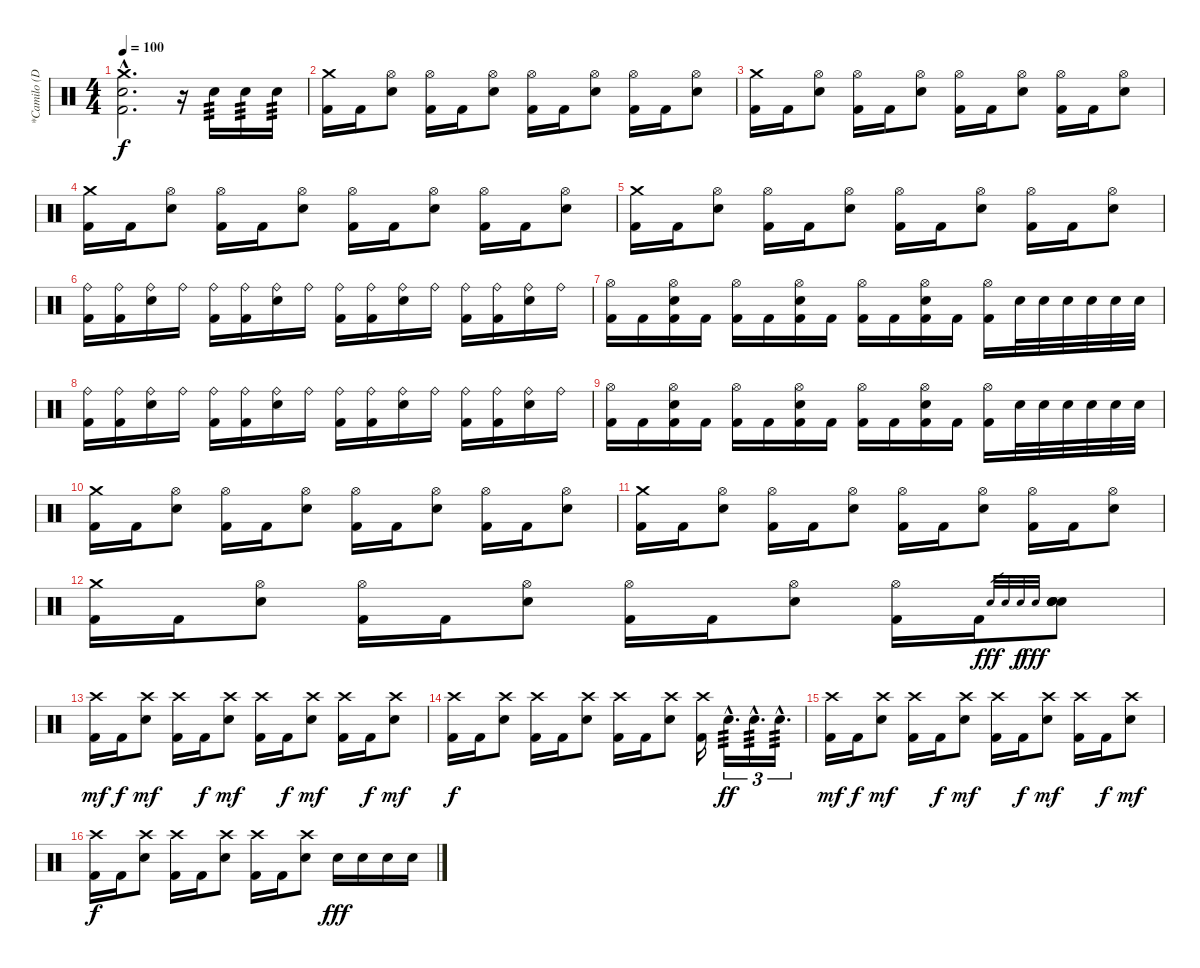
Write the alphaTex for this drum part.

\track ("*Camilo (Drums)" "*Camilo (D") {instrument percussion}
\staff {score}
\articulation defaults
\ts (4 4)
\tempo 100
\clef neutral
\ks c
("Crash medium (hit)"{hac} "Electric Snare (hit)"{hac} "Kick (hit) 2"{hac}).2{d dy f} r.16 "Electric Snare (hit)".16{tp 3} "Electric Snare (hit)".16{tp 3} "Electric Snare (hit)".16{tp 3} |
("Crash medium (hit)" "Kick (hit) 2").16 "Kick (hit) 2".16 ("Hi-Hat (open)" "Electric Snare (hit)").8 ("Hi-Hat (open)" "Kick (hit) 2").16 "Kick (hit) 2".16 ("Hi-Hat (open)" "Electric Snare (hit)").8 ("Hi-Hat (open)" "Kick (hit) 2").16 "Kick (hit) 2".16 ("Hi-Hat (open)" "Electric Snare (hit)").8 ("Hi-Hat (open)" "Kick (hit) 2").16 "Kick (hit) 2".16 ("Hi-Hat (open)" "Electric Snare (hit)").8 |
("Crash medium (hit)" "Kick (hit) 2").16 "Kick (hit) 2".16 ("Hi-Hat (open)" "Electric Snare (hit)").8 ("Hi-Hat (open)" "Kick (hit) 2").16 "Kick (hit) 2".16 ("Hi-Hat (open)" "Electric Snare (hit)").8 ("Hi-Hat (open)" "Kick (hit) 2").16 "Kick (hit) 2".16 ("Hi-Hat (open)" "Electric Snare (hit)").8 ("Hi-Hat (open)" "Kick (hit) 2").16 "Kick (hit) 2".16 ("Hi-Hat (open)" "Electric Snare (hit)").8 |
("Crash medium (hit)" "Kick (hit) 2").16 "Kick (hit) 2".16 ("Hi-Hat (open)" "Electric Snare (hit)").8 ("Hi-Hat (open)" "Kick (hit) 2").16 "Kick (hit) 2".16 ("Hi-Hat (open)" "Electric Snare (hit)").8 ("Hi-Hat (open)" "Kick (hit) 2").16 "Kick (hit) 2".16 ("Hi-Hat (open)" "Electric Snare (hit)").8 ("Hi-Hat (open)" "Kick (hit) 2").16 "Kick (hit) 2".16 ("Hi-Hat (open)" "Electric Snare (hit)").8 |
("Crash medium (hit)" "Kick (hit) 2").16 "Kick (hit) 2".16 ("Hi-Hat (open)" "Electric Snare (hit)").8 ("Hi-Hat (open)" "Kick (hit) 2").16 "Kick (hit) 2".16 ("Hi-Hat (open)" "Electric Snare (hit)").8 ("Hi-Hat (open)" "Kick (hit) 2").16 "Kick (hit) 2".16 ("Hi-Hat (open)" "Electric Snare (hit)").8 ("Hi-Hat (open)" "Kick (hit) 2").16 "Kick (hit) 2".16 ("Hi-Hat (open)" "Electric Snare (hit)").8 |
("Ride (bell)" "Kick (hit) 2").16 ("Ride (bell)" "Kick (hit) 2").16 ("Ride (bell)" "Electric Snare (hit)").16 "Ride (bell)".16 ("Ride (bell)" "Kick (hit) 2").16 ("Ride (bell)" "Kick (hit) 2").16 ("Ride (bell)" "Electric Snare (hit)").16 "Ride (bell)".16 ("Ride (bell)" "Kick (hit) 2").16 ("Ride (bell)" "Kick (hit) 2").16 ("Ride (bell)" "Electric Snare (hit)").16 "Ride (bell)".16 ("Ride (bell)" "Kick (hit) 2").16 ("Ride (bell)" "Kick (hit) 2").16 ("Ride (bell)" "Electric Snare (hit)").16 "Ride (bell)".16 |
("Hi-Hat (open)" "Kick (hit) 2").16 "Kick (hit) 2".16 ("Hi-Hat (open)" "Electric Snare (hit)" "Kick (hit) 2").16 "Kick (hit) 2".16 ("Hi-Hat (open)" "Kick (hit) 2").16 "Kick (hit) 2".16 ("Hi-Hat (open)" "Electric Snare (hit)" "Kick (hit) 2").16 "Kick (hit) 2".16 ("Hi-Hat (open)" "Kick (hit) 2").16 "Kick (hit) 2".16 ("Hi-Hat (open)" "Electric Snare (hit)" "Kick (hit) 2").16 "Kick (hit) 2".16 ("Hi-Hat (open)" "Kick (hit) 2").16 "Electric Snare (hit)".32 "Electric Snare (hit)".32 "Electric Snare (hit)".32 "Electric Snare (hit)".32 "Electric Snare (hit)".32 "Electric Snare (hit)".32 |
("Ride (bell)" "Kick (hit) 2").16 ("Ride (bell)" "Kick (hit) 2").16 ("Ride (bell)" "Electric Snare (hit)").16 "Ride (bell)".16 ("Ride (bell)" "Kick (hit) 2").16 ("Ride (bell)" "Kick (hit) 2").16 ("Ride (bell)" "Electric Snare (hit)").16 "Ride (bell)".16 ("Ride (bell)" "Kick (hit) 2").16 ("Ride (bell)" "Kick (hit) 2").16 ("Ride (bell)" "Electric Snare (hit)").16 "Ride (bell)".16 ("Ride (bell)" "Kick (hit) 2").16 ("Ride (bell)" "Kick (hit) 2").16 ("Ride (bell)" "Electric Snare (hit)").16 "Ride (bell)".16 |
("Hi-Hat (open)" "Kick (hit) 2").16 "Kick (hit) 2".16 ("Hi-Hat (open)" "Electric Snare (hit)" "Kick (hit) 2").16 "Kick (hit) 2".16 ("Hi-Hat (open)" "Kick (hit) 2").16 "Kick (hit) 2".16 ("Hi-Hat (open)" "Electric Snare (hit)" "Kick (hit) 2").16 "Kick (hit) 2".16 ("Hi-Hat (open)" "Kick (hit) 2").16 "Kick (hit) 2".16 ("Hi-Hat (open)" "Electric Snare (hit)" "Kick (hit) 2").16 "Kick (hit) 2".16 ("Hi-Hat (open)" "Kick (hit) 2").16 "Electric Snare (hit)".32 "Electric Snare (hit)".32 "Electric Snare (hit)".32 "Electric Snare (hit)".32 "Electric Snare (hit)".32 "Electric Snare (hit)".32 |
("Crash medium (hit)" "Kick (hit) 2").16 "Kick (hit) 2".16 ("Hi-Hat (open)" "Electric Snare (hit)").8 ("Hi-Hat (open)" "Kick (hit) 2").16 "Kick (hit) 2".16 ("Hi-Hat (open)" "Electric Snare (hit)").8 ("Hi-Hat (open)" "Kick (hit) 2").16 "Kick (hit) 2".16 ("Hi-Hat (open)" "Electric Snare (hit)").8 ("Hi-Hat (open)" "Kick (hit) 2").16 "Kick (hit) 2".16 ("Hi-Hat (open)" "Electric Snare (hit)").8 |
("Crash medium (hit)" "Kick (hit) 2").16 "Kick (hit) 2".16 ("Hi-Hat (open)" "Electric Snare (hit)").8 ("Hi-Hat (open)" "Kick (hit) 2").16 "Kick (hit) 2".16 ("Hi-Hat (open)" "Electric Snare (hit)").8 ("Hi-Hat (open)" "Kick (hit) 2").16 "Kick (hit) 2".16 ("Hi-Hat (open)" "Electric Snare (hit)").8 ("Hi-Hat (open)" "Kick (hit) 2").16 "Kick (hit) 2".16 ("Hi-Hat (open)" "Electric Snare (hit)").8 |
("Crash medium (hit)" "Kick (hit) 2").16 "Kick (hit) 2".16 ("Hi-Hat (open)" "Electric Snare (hit)").8 ("Hi-Hat (open)" "Kick (hit) 2").16 "Kick (hit) 2".16 ("Hi-Hat (open)" "Electric Snare (hit)").8 ("Hi-Hat (open)" "Kick (hit) 2").16 "Kick (hit) 2".16 ("Hi-Hat (open)" "Electric Snare (hit)").8 ("Hi-Hat (open)" "Kick (hit) 2").16 "Kick (hit) 2".16 "Electric Snare (hit)".32{gr dy fff} "Electric Snare (hit)".32{gr} "Electric Snare (hit)".32{gr dy f} "Electric Snare (hit)".32{gr dy fff} ("Electric Snare (hit)" "Electric Snare (hit)" "Electric Snare (hit)" "Electric Snare (hit)").8 |
("Crash high (hit)" "Kick (hit) 2").16{dy mf} "Kick (hit) 2".16{dy f} ("Crash high (hit)" "Electric Snare (hit)").8{dy mf} ("Crash high (hit)" "Kick (hit) 2").16 "Kick (hit) 2".16{dy f} ("Crash high (hit)" "Electric Snare (hit)").8{dy mf} ("Crash high (hit)" "Kick (hit) 2").16 "Kick (hit) 2".16{dy f} ("Crash high (hit)" "Electric Snare (hit)").8{dy mf} ("Crash high (hit)" "Kick (hit) 2").16 "Kick (hit) 2".16{dy f} ("Crash high (hit)" "Electric Snare (hit)").8{dy mf} |
("Crash high (hit)" "Kick (hit) 2").16{dy f} "Kick (hit) 2".16 ("Crash high (hit)" "Electric Snare (hit)").8 ("Crash high (hit)" "Kick (hit) 2").16 "Kick (hit) 2".16 ("Crash high (hit)" "Electric Snare (hit)").8 ("Crash high (hit)" "Kick (hit) 2").16 "Kick (hit) 2".16 ("Crash high (hit)" "Electric Snare (hit)").8 ("Crash high (hit)" "Kick (hit) 2").16 "Electric Snare (hit)"{hac}.16{d tu (3 2) tp 3 dy ff} "Electric Snare (hit)"{hac}.16{d tu (3 2) tp 3} "Electric Snare (hit)"{hac}.16{d tu (3 2) tp 3} |
("Crash high (hit)" "Kick (hit) 2").16{dy mf} "Kick (hit) 2".16{dy f} ("Crash high (hit)" "Electric Snare (hit)").8{dy mf} ("Crash high (hit)" "Kick (hit) 2").16 "Kick (hit) 2".16{dy f} ("Crash high (hit)" "Electric Snare (hit)").8{dy mf} ("Crash high (hit)" "Kick (hit) 2").16 "Kick (hit) 2".16{dy f} ("Crash high (hit)" "Electric Snare (hit)").8{dy mf} ("Crash high (hit)" "Kick (hit) 2").16 "Kick (hit) 2".16{dy f} ("Crash high (hit)" "Electric Snare (hit)").8{dy mf} |
("Crash high (hit)" "Kick (hit) 2").16{dy f} "Kick (hit) 2".16 ("Crash high (hit)" "Electric Snare (hit)").8 ("Crash high (hit)" "Kick (hit) 2").16 "Kick (hit) 2".16 ("Crash high (hit)" "Electric Snare (hit)").8 ("Crash high (hit)" "Kick (hit) 2").16 "Kick (hit) 2".16 ("Crash high (hit)" "Electric Snare (hit)").8 "Electric Snare (hit)".16{dy fff} "Electric Snare (hit)".16 "Electric Snare (hit)".16 "Electric Snare (hit)".16
